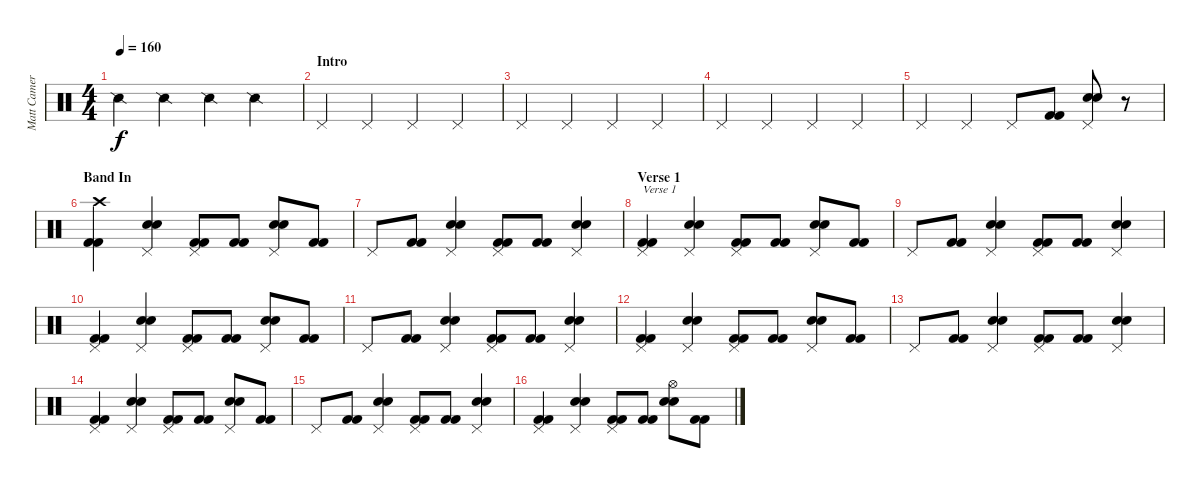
\track ("Matt Cameron" "Matt Camer") {instrument percussion}
\staff {score}
\articulation defaults
\ts (4 4)
\tempo 160
\clef neutral
\ks c "Snare (side stick) 2".4{dy f} "Snare (side stick) 2".4 "Snare (side stick) 2".4 "Snare (side stick) 2".4
|
\section ("" "Intro")
"Pedal Hi-Hat (hit)".4 "Pedal Hi-Hat (hit)".4 "Pedal Hi-Hat (hit)".4 "Pedal Hi-Hat (hit)".4 |
"Pedal Hi-Hat (hit)".4 "Pedal Hi-Hat (hit)".4 "Pedal Hi-Hat (hit)".4 "Pedal Hi-Hat (hit)".4 |
"Pedal Hi-Hat (hit)".4 "Pedal Hi-Hat (hit)".4 "Pedal Hi-Hat (hit)".4 "Pedal Hi-Hat (hit)".4 |
"Pedal Hi-Hat (hit)".4 "Pedal Hi-Hat (hit)".4 "Pedal Hi-Hat (hit)".8 ("Kick (hit) 2" "Kick (hit) 2").8 ("Snare (hit) 2" "Electric Snare (hit)" "Pedal Hi-Hat (hit)").8 r.8 |
\section ("" "Band In")
("Crash high (hit)" "Kick (hit) 2" "Kick (hit) 2").4 ("Electric Snare (hit)" "Electric Snare (hit)" "Pedal Hi-Hat (hit)").4 ("Kick (hit) 2" "Kick (hit) 2" "Pedal Hi-Hat (hit)").8 ("Kick (hit) 2" "Kick (hit) 2").8 ("Electric Snare (hit)" "Electric Snare (hit)" "Pedal Hi-Hat (hit)").8 ("Kick (hit) 2" "Kick (hit) 2").8 |
"Pedal Hi-Hat (hit)".8 ("Kick (hit) 2" "Kick (hit) 2").8 ("Electric Snare (hit)" "Electric Snare (hit)" "Pedal Hi-Hat (hit)").4 ("Kick (hit) 2" "Kick (hit) 2" "Pedal Hi-Hat (hit)").8 ("Kick (hit) 2" "Kick (hit) 2").8 ("Electric Snare (hit)" "Electric Snare (hit)" "Pedal Hi-Hat (hit)").4 |
\section ("" "Verse 1")
("Kick (hit) 2" "Kick (hit) 2" "Pedal Hi-Hat (hit)").4{txt "Verse 1"} ("Electric Snare (hit)" "Electric Snare (hit)" "Pedal Hi-Hat (hit)").4 ("Kick (hit) 2" "Kick (hit) 2" "Pedal Hi-Hat (hit)").8 ("Kick (hit) 2" "Kick (hit) 2").8 ("Electric Snare (hit)" "Electric Snare (hit)" "Pedal Hi-Hat (hit)").8 ("Kick (hit) 2" "Kick (hit) 2").8 |
"Pedal Hi-Hat (hit)".8 ("Kick (hit) 2" "Kick (hit) 2").8 ("Electric Snare (hit)" "Electric Snare (hit)" "Pedal Hi-Hat (hit)").4 ("Kick (hit) 2" "Kick (hit) 2" "Pedal Hi-Hat (hit)").8 ("Kick (hit) 2" "Kick (hit) 2").8 ("Electric Snare (hit)" "Electric Snare (hit)" "Pedal Hi-Hat (hit)").4 |
("Kick (hit) 2" "Kick (hit) 2" "Pedal Hi-Hat (hit)").4 ("Electric Snare (hit)" "Electric Snare (hit)" "Pedal Hi-Hat (hit)").4 ("Kick (hit) 2" "Kick (hit) 2" "Pedal Hi-Hat (hit)").8 ("Kick (hit) 2" "Kick (hit) 2").8 ("Electric Snare (hit)" "Electric Snare (hit)" "Pedal Hi-Hat (hit)").8 ("Kick (hit) 2" "Kick (hit) 2").8 |
"Pedal Hi-Hat (hit)".8 ("Kick (hit) 2" "Kick (hit) 2").8 ("Electric Snare (hit)" "Electric Snare (hit)" "Pedal Hi-Hat (hit)").4 ("Kick (hit) 2" "Kick (hit) 2" "Pedal Hi-Hat (hit)").8 ("Kick (hit) 2" "Kick (hit) 2").8 ("Electric Snare (hit)" "Electric Snare (hit)" "Pedal Hi-Hat (hit)").4 |
("Kick (hit) 2" "Kick (hit) 2" "Pedal Hi-Hat (hit)").4 ("Electric Snare (hit)" "Electric Snare (hit)" "Pedal Hi-Hat (hit)").4 ("Kick (hit) 2" "Kick (hit) 2" "Pedal Hi-Hat (hit)").8 ("Kick (hit) 2" "Kick (hit) 2").8 ("Electric Snare (hit)" "Electric Snare (hit)" "Pedal Hi-Hat (hit)").8 ("Kick (hit) 2" "Kick (hit) 2").8 |
"Pedal Hi-Hat (hit)".8 ("Kick (hit) 2" "Kick (hit) 2").8 ("Electric Snare (hit)" "Electric Snare (hit)" "Pedal Hi-Hat (hit)").4 ("Kick (hit) 2" "Kick (hit) 2" "Pedal Hi-Hat (hit)").8 ("Kick (hit) 2" "Kick (hit) 2").8 ("Electric Snare (hit)" "Electric Snare (hit)" "Pedal Hi-Hat (hit)").4 |
("Kick (hit) 2" "Kick (hit) 2" "Pedal Hi-Hat (hit)").4 ("Electric Snare (hit)" "Electric Snare (hit)" "Pedal Hi-Hat (hit)").4 ("Kick (hit) 2" "Kick (hit) 2" "Pedal Hi-Hat (hit)").8 ("Kick (hit) 2" "Kick (hit) 2").8 ("Electric Snare (hit)" "Electric Snare (hit)" "Pedal Hi-Hat (hit)").8 ("Kick (hit) 2" "Kick (hit) 2").8 |
"Pedal Hi-Hat (hit)".8 ("Kick (hit) 2" "Kick (hit) 2").8 ("Electric Snare (hit)" "Electric Snare (hit)" "Pedal Hi-Hat (hit)").4 ("Kick (hit) 2" "Kick (hit) 2" "Pedal Hi-Hat (hit)").8 ("Kick (hit) 2" "Kick (hit) 2").8 ("Electric Snare (hit)" "Electric Snare (hit)" "Pedal Hi-Hat (hit)").4 |
("Kick (hit) 2" "Kick (hit) 2" "Pedal Hi-Hat (hit)").4 ("Electric Snare (hit)" "Electric Snare (hit)" "Pedal Hi-Hat (hit)").4 ("Kick (hit) 2" "Kick (hit) 2" "Pedal Hi-Hat (hit)").8 ("Kick (hit) 2" "Kick (hit) 2").8 ("Electric Snare (hit)" "Electric Snare (hit)" "Hi-Hat (open)").8 ("Kick (hit) 2" "Kick (hit) 2").8
